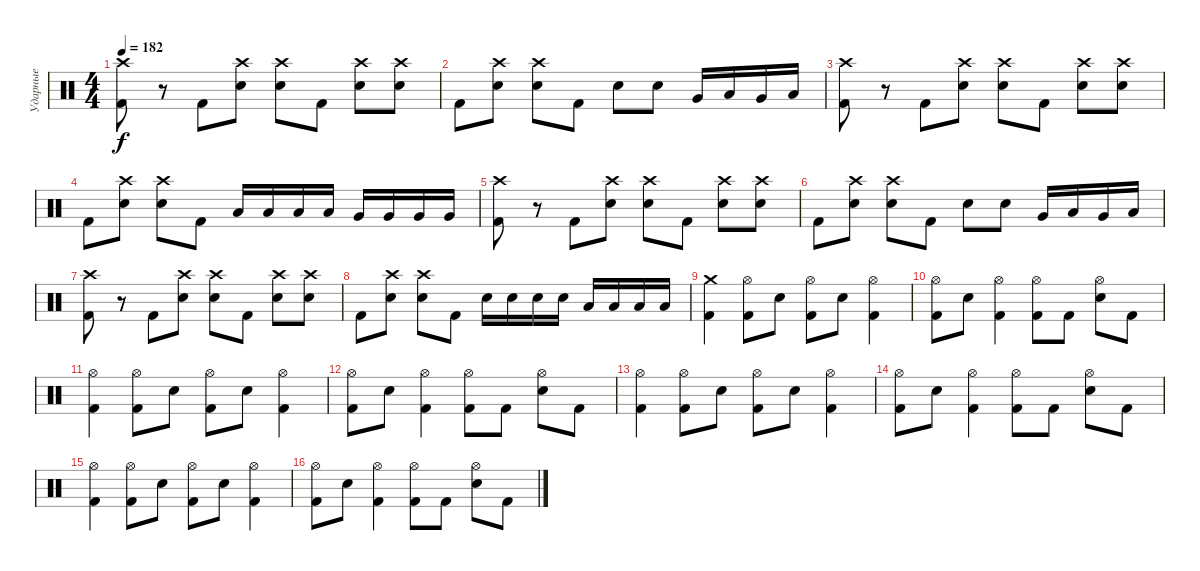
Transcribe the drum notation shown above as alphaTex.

\track ("Ударные" "Ударные") {instrument percussion}
\staff {score}
\articulation defaults
\ts (4 4)
\tempo 182
\clef neutral
\ks c
("Crash high (hit)" "Kick (hit) 2").8{dy f} r.8 "Kick (hit) 2".8 ("Crash high (hit)" "Electric Snare (hit)").8 ("Crash high (hit)" "Electric Snare (hit)").8 "Kick (hit) 2".8 ("Crash high (hit)" "Electric Snare (hit)").8 ("Crash high (hit)" "Electric Snare (hit)").8 |
"Kick (hit) 2".8 ("Crash high (hit)" "Electric Snare (hit)").8 ("Crash high (hit)" "Electric Snare (hit)").8 "Kick (hit) 2".8 "Electric Snare (hit)".8 "Electric Snare (hit)".8 "Very Low Tom (hit)".16 "Low Tom (hit)".16 "Very Low Tom (hit)".16 "Low Tom (hit)".16 |
("Crash high (hit)" "Kick (hit) 2").8 r.8 "Kick (hit) 2".8 ("Crash high (hit)" "Electric Snare (hit)").8 ("Crash high (hit)" "Electric Snare (hit)").8 "Kick (hit) 2".8 ("Crash high (hit)" "Electric Snare (hit)").8 ("Crash high (hit)" "Electric Snare (hit)").8 |
"Kick (hit) 2".8 ("Crash high (hit)" "Electric Snare (hit)").8 ("Crash high (hit)" "Electric Snare (hit)").8 "Kick (hit) 2".8 "Low Tom (hit)".16 "Low Tom (hit)".16 "Low Tom (hit)".16 "Low Tom (hit)".16 "Very Low Tom (hit)".16 "Very Low Tom (hit)".16 "Very Low Tom (hit)".16 "Very Low Tom (hit)".16 |
("Crash high (hit)" "Kick (hit) 2").8 r.8 "Kick (hit) 2".8 ("Crash high (hit)" "Electric Snare (hit)").8 ("Crash high (hit)" "Electric Snare (hit)").8 "Kick (hit) 2".8 ("Crash high (hit)" "Electric Snare (hit)").8 ("Crash high (hit)" "Electric Snare (hit)").8 |
"Kick (hit) 2".8 ("Crash high (hit)" "Electric Snare (hit)").8 ("Crash high (hit)" "Electric Snare (hit)").8 "Kick (hit) 2".8 "Electric Snare (hit)".8 "Electric Snare (hit)".8 "Very Low Tom (hit)".16 "Low Tom (hit)".16 "Very Low Tom (hit)".16 "Low Tom (hit)".16 |
("Crash high (hit)" "Kick (hit) 2").8 r.8 "Kick (hit) 2".8 ("Crash high (hit)" "Electric Snare (hit)").8 ("Crash high (hit)" "Electric Snare (hit)").8 "Kick (hit) 2".8 ("Crash high (hit)" "Electric Snare (hit)").8 ("Crash high (hit)" "Electric Snare (hit)").8 |
"Kick (hit) 2".8 ("Crash high (hit)" "Electric Snare (hit)").8 ("Crash high (hit)" "Electric Snare (hit)").8 "Kick (hit) 2".8 "Electric Snare (hit)".16 "Electric Snare (hit)".16 "Electric Snare (hit)".16 "Electric Snare (hit)".16 "Low Tom (hit)".16 "Low Tom (hit)".16 "Low Tom (hit)".16 "Low Tom (hit)".16 |
("Crash medium (hit)" "Kick (hit) 2").4 ("Hi-Hat (open)" "Kick (hit) 2").8 "Electric Snare (hit)".8 ("Hi-Hat (open)" "Kick (hit) 2").8 "Electric Snare (hit)".8 ("Hi-Hat (open)" "Kick (hit) 2").4 |
("Hi-Hat (open)" "Kick (hit) 2").8 "Electric Snare (hit)".8 ("Hi-Hat (open)" "Kick (hit) 2").4 ("Hi-Hat (open)" "Kick (hit) 2").8 "Kick (hit) 2".8 ("Hi-Hat (open)" "Electric Snare (hit)").8 "Kick (hit) 2".8 |
("Hi-Hat (open)" "Kick (hit) 2").4 ("Hi-Hat (open)" "Kick (hit) 2").8 "Electric Snare (hit)".8 ("Hi-Hat (open)" "Kick (hit) 2").8 "Electric Snare (hit)".8 ("Hi-Hat (open)" "Kick (hit) 2").4 |
("Hi-Hat (open)" "Kick (hit) 2").8 "Electric Snare (hit)".8 ("Hi-Hat (open)" "Kick (hit) 2").4 ("Hi-Hat (open)" "Kick (hit) 2").8 "Kick (hit) 2".8 ("Hi-Hat (open)" "Electric Snare (hit)").8 "Kick (hit) 2".8 |
("Hi-Hat (open)" "Kick (hit) 2").4 ("Hi-Hat (open)" "Kick (hit) 2").8 "Electric Snare (hit)".8 ("Hi-Hat (open)" "Kick (hit) 2").8 "Electric Snare (hit)".8 ("Hi-Hat (open)" "Kick (hit) 2").4 |
("Hi-Hat (open)" "Kick (hit) 2").8 "Electric Snare (hit)".8 ("Hi-Hat (open)" "Kick (hit) 2").4 ("Hi-Hat (open)" "Kick (hit) 2").8 "Kick (hit) 2".8 ("Hi-Hat (open)" "Electric Snare (hit)").8 "Kick (hit) 2".8 |
("Hi-Hat (open)" "Kick (hit) 2").4 ("Hi-Hat (open)" "Kick (hit) 2").8 "Electric Snare (hit)".8 ("Hi-Hat (open)" "Kick (hit) 2").8 "Electric Snare (hit)".8 ("Hi-Hat (open)" "Kick (hit) 2").4 |
("Hi-Hat (open)" "Kick (hit) 2").8 "Electric Snare (hit)".8 ("Hi-Hat (open)" "Kick (hit) 2").4 ("Hi-Hat (open)" "Kick (hit) 2").8 "Kick (hit) 2".8 ("Hi-Hat (open)" "Electric Snare (hit)").8 "Kick (hit) 2".8
